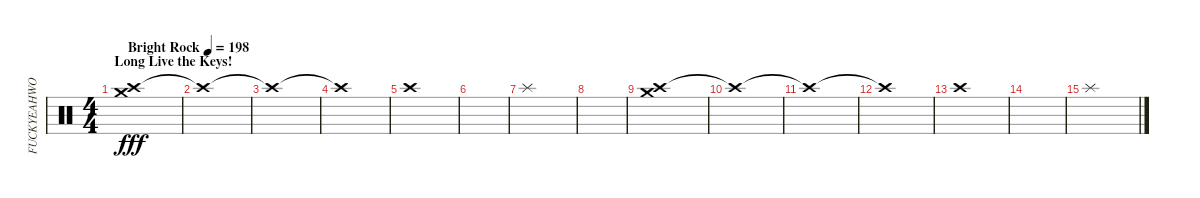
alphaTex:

\track ("FUCKYEAHWOOTDAVEMACKINTOSH(Percussion)" "FUCKYEAHWO") {instrument percussion}
\staff {score}
\articulation defaults
\ts (4 4)
\section ("" "Long Live the Keys!")
\tempo (198 "Bright Rock")
\clef neutral
\ks c
("Crash high (hit)" "Crash medium (hit)").1{dy fff} |
"Crash high (hit)"{t}.1 |
"Crash high (hit)"{t}.1 |
"Crash high (hit)"{t}.1 |
"Crash high (hit)".1 |
|
"Splash (hit)".1 |
|
("Crash high (hit)" "Crash medium (hit)").1 |
"Crash high (hit)"{t}.1 |
"Crash high (hit)"{t}.1 |
"Crash high (hit)"{t}.1 |
"Crash high (hit)".1 |
|
"Splash (hit)".1
